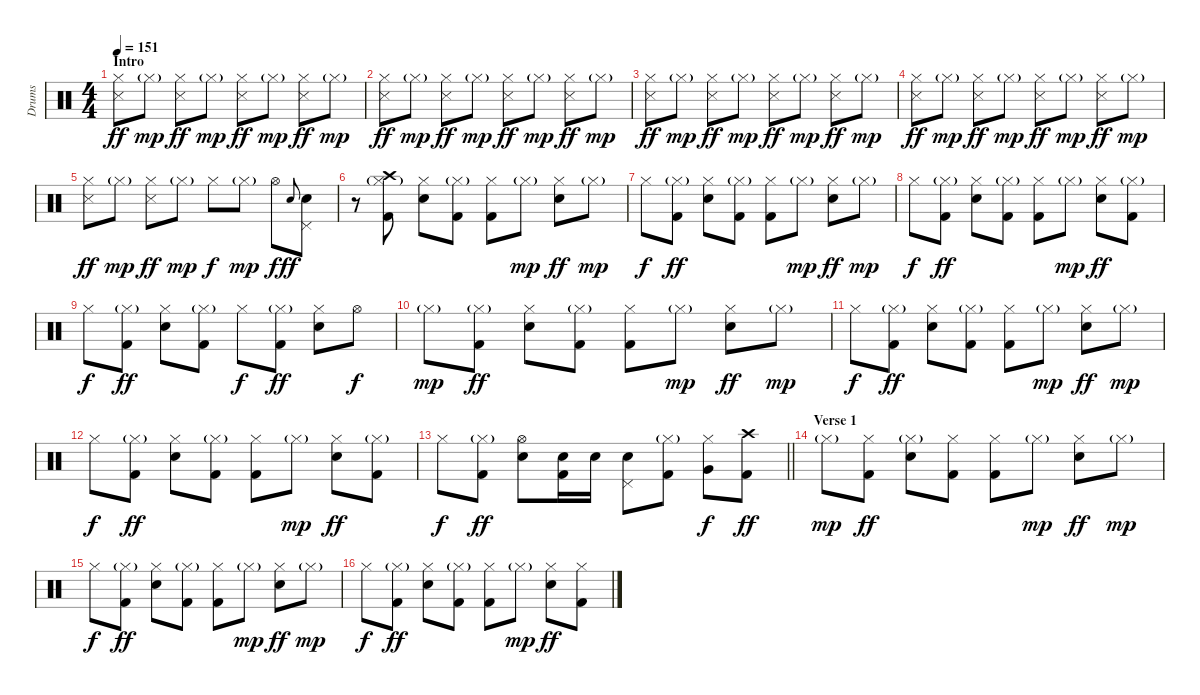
\track ("Drums" "Drums") {instrument percussion}
\staff {score}
\articulation defaults
\ts (4 4)
\section ("" "Intro")
\tempo 151
\clef neutral
\ks c
("Hi-Hat (closed)" "Snare (side stick) 3").8{dy ff} "Hi-Hat (closed)"{g}.8{dy mp} ("Hi-Hat (closed)" "Snare (side stick) 3").8{dy ff} "Hi-Hat (closed)"{g}.8{dy mp} ("Hi-Hat (closed)" "Snare (side stick) 3").8{dy ff} "Hi-Hat (closed)"{g}.8{dy mp} ("Hi-Hat (closed)" "Snare (side stick) 3").8{dy ff} "Hi-Hat (closed)"{g}.8{dy mp} |
("Hi-Hat (closed)" "Snare (side stick) 3").8{dy ff} "Hi-Hat (closed)"{g}.8{dy mp} ("Hi-Hat (closed)" "Snare (side stick) 3").8{dy ff} "Hi-Hat (closed)"{g}.8{dy mp} ("Hi-Hat (closed)" "Snare (side stick) 3").8{dy ff} "Hi-Hat (closed)"{g}.8{dy mp} ("Hi-Hat (closed)" "Snare (side stick) 3").8{dy ff} "Hi-Hat (closed)"{g}.8{dy mp} |
("Hi-Hat (closed)" "Snare (side stick) 3").8{dy ff} "Hi-Hat (closed)"{g}.8{dy mp} ("Hi-Hat (closed)" "Snare (side stick) 3").8{dy ff} "Hi-Hat (closed)"{g}.8{dy mp} ("Hi-Hat (closed)" "Snare (side stick) 3").8{dy ff} "Hi-Hat (closed)"{g}.8{dy mp} ("Hi-Hat (closed)" "Snare (side stick) 3").8{dy ff} "Hi-Hat (closed)"{g}.8{dy mp} |
("Hi-Hat (closed)" "Snare (side stick) 3").8{dy ff} "Hi-Hat (closed)"{g}.8{dy mp} ("Hi-Hat (closed)" "Snare (side stick) 3").8{dy ff} "Hi-Hat (closed)"{g}.8{dy mp} ("Hi-Hat (closed)" "Snare (side stick) 3").8{dy ff} "Hi-Hat (closed)"{g}.8{dy mp} ("Hi-Hat (closed)" "Snare (side stick) 3").8{dy ff} "Hi-Hat (closed)"{g}.8{dy mp} |
("Hi-Hat (closed)" "Snare (side stick) 3").8{dy ff} "Hi-Hat (closed)"{g}.8{dy mp} ("Hi-Hat (closed)" "Snare (side stick) 3").8{dy ff} "Hi-Hat (closed)"{g}.8{dy mp} "Hi-Hat (closed)".8{dy f} "Hi-Hat (closed)"{g}.8{dy mp} "Hi-Hat (open)".8{dy f} "Electric Snare (hit)".8{gr onbeat dy ff} ("Electric Snare (hit)" "Pedal Hi-Hat (hit)").8 |
r.8 ("Crash high (hit)" "Hi-Hat (closed)"{g} "Kick (hit) 2").8 ("Hi-Hat (closed)" "Electric Snare (hit)").8 ("Hi-Hat (closed)"{g} "Kick (hit) 2").8 ("Hi-Hat (closed)" "Kick (hit) 2").8 "Hi-Hat (closed)"{g}.8{dy mp} ("Hi-Hat (closed)" "Electric Snare (hit)").8{dy ff} "Hi-Hat (closed)"{g}.8{dy mp} |
"Hi-Hat (closed)".8{dy f} ("Hi-Hat (closed)"{g} "Kick (hit) 2").8{dy ff} ("Hi-Hat (closed)" "Electric Snare (hit)").8 ("Hi-Hat (closed)"{g} "Kick (hit) 2").8 ("Hi-Hat (closed)" "Kick (hit) 2").8 "Hi-Hat (closed)"{g}.8{dy mp} ("Hi-Hat (closed)" "Electric Snare (hit)").8{dy ff} "Hi-Hat (closed)"{g}.8{dy mp} |
"Hi-Hat (closed)".8{dy f} ("Hi-Hat (closed)"{g} "Kick (hit) 2").8{dy ff} ("Hi-Hat (closed)" "Electric Snare (hit)").8 ("Hi-Hat (closed)"{g} "Kick (hit) 2").8 ("Hi-Hat (closed)" "Kick (hit) 2").8 "Hi-Hat (closed)"{g}.8{dy mp} ("Hi-Hat (closed)" "Electric Snare (hit)").8{dy ff} ("Hi-Hat (closed)"{g} "Kick (hit) 2").8 |
"Hi-Hat (closed)".8{dy f} ("Hi-Hat (closed)"{g} "Kick (hit) 2").8{dy ff} ("Hi-Hat (closed)" "Electric Snare (hit)").8 ("Hi-Hat (closed)"{g} "Kick (hit) 2").8 "Hi-Hat (closed)".8{dy f} ("Hi-Hat (closed)"{g} "Kick (hit) 2").8{dy ff} ("Hi-Hat (closed)" "Electric Snare (hit)").8 "Hi-Hat (open)".8{dy f} |
"Hi-Hat (closed)"{g}.8{dy mp} ("Hi-Hat (closed)"{g} "Kick (hit) 2").8{dy ff} ("Hi-Hat (closed)" "Electric Snare (hit)").8 ("Hi-Hat (closed)"{g} "Kick (hit) 2").8 ("Hi-Hat (closed)" "Kick (hit) 2").8 "Hi-Hat (closed)"{g}.8{dy mp} ("Hi-Hat (closed)" "Electric Snare (hit)").8{dy ff} "Hi-Hat (closed)"{g}.8{dy mp} |
"Hi-Hat (closed)".8{dy f} ("Hi-Hat (closed)"{g} "Kick (hit) 2").8{dy ff} ("Hi-Hat (closed)" "Electric Snare (hit)").8 ("Hi-Hat (closed)"{g} "Kick (hit) 2").8 ("Hi-Hat (closed)" "Kick (hit) 2").8 "Hi-Hat (closed)"{g}.8{dy mp} ("Hi-Hat (closed)" "Electric Snare (hit)").8{dy ff} "Hi-Hat (closed)"{g}.8{dy mp} |
"Hi-Hat (closed)".8{dy f} ("Hi-Hat (closed)"{g} "Kick (hit) 2").8{dy ff} ("Hi-Hat (closed)" "Electric Snare (hit)").8 ("Hi-Hat (closed)"{g} "Kick (hit) 2").8 ("Hi-Hat (closed)" "Kick (hit) 2").8 "Hi-Hat (closed)"{g}.8{dy mp} ("Hi-Hat (closed)" "Electric Snare (hit)").8{dy ff} ("Hi-Hat (closed)"{g} "Kick (hit) 2").8 |
\barLineRight lightlight "Hi-Hat (closed)".8{dy f}
("Hi-Hat (closed)"{g} "Kick (hit) 2").8{dy ff} ("Hi-Hat (open)" "Electric Snare (hit)").8 ("Electric Snare (hit)" "Kick (hit) 2").16 "Electric Snare (hit)".16 ("Pedal Hi-Hat (hit)" "Electric Snare (hit)").8 ("Hi-Hat (closed)"{g} "Kick (hit) 2").8 ("Hi-Hat (closed)" "Very Low Tom (hit)").8{dy f} ("Crash high (hit)" "Kick (hit) 2").8{dy ff} |
\section ("" "Verse 1")
"Hi-Hat (closed)"{g}.8{dy mp} ("Hi-Hat (closed)" "Kick (hit) 2").8{dy ff} ("Hi-Hat (closed)"{g} "Electric Snare (hit)").8 ("Hi-Hat (closed)" "Kick (hit) 2").8 ("Hi-Hat (closed)" "Kick (hit) 2").8 "Hi-Hat (closed)"{g}.8{dy mp} ("Hi-Hat (closed)" "Electric Snare (hit)").8{dy ff} "Hi-Hat (closed)"{g}.8{dy mp} |
"Hi-Hat (closed)".8{dy f} ("Hi-Hat (closed)"{g} "Kick (hit) 2").8{dy ff} ("Hi-Hat (closed)" "Electric Snare (hit)").8 ("Hi-Hat (closed)"{g} "Kick (hit) 2").8 ("Hi-Hat (closed)" "Kick (hit) 2").8 "Hi-Hat (closed)"{g}.8{dy mp} ("Hi-Hat (closed)" "Electric Snare (hit)").8{dy ff} "Hi-Hat (closed)"{g}.8{dy mp} |
"Hi-Hat (closed)".8{dy f} ("Hi-Hat (closed)"{g} "Kick (hit) 2").8{dy ff} ("Hi-Hat (closed)" "Electric Snare (hit)").8 ("Hi-Hat (closed)"{g} "Kick (hit) 2").8 ("Hi-Hat (closed)" "Kick (hit) 2").8 "Hi-Hat (closed)"{g}.8{dy mp} ("Hi-Hat (closed)" "Electric Snare (hit)").8{dy ff} ("Hi-Hat (closed)" "Kick (hit) 2").8
